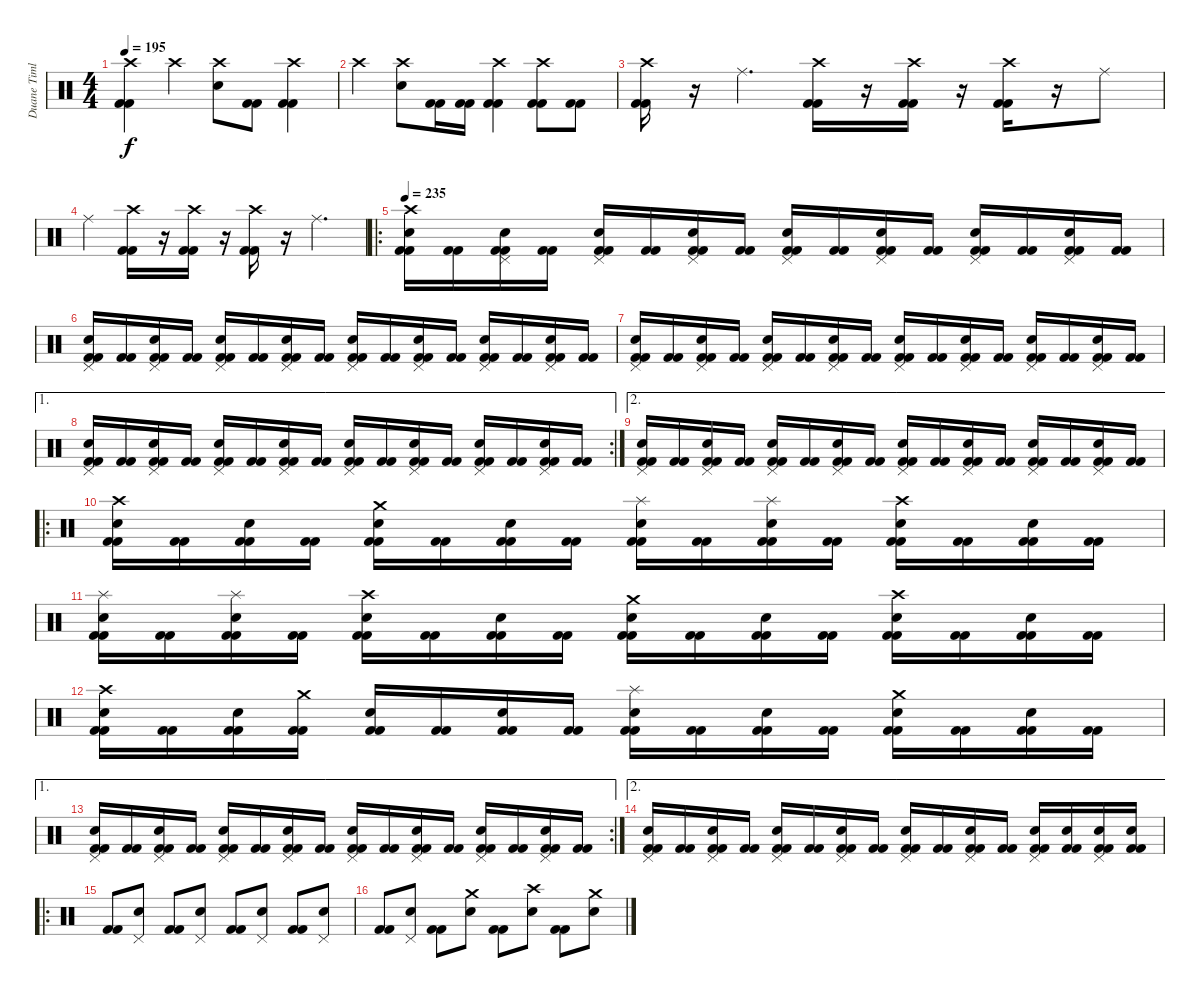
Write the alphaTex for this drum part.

\track ("Duane Timlin" "Duane Timl") {instrument percussion}
\staff {score}
\articulation defaults
\ts (4 4)
\tempo 195
\clef neutral
\ks c
("Crash high (hit)" "Kick (hit) 2" "Kick (hit) 2").4{dy f} "Crash high (hit)".4 ("Crash high (hit)" "Electric Snare (hit)").8 ("Kick (hit) 2" "Kick (hit) 2").8 ("Crash high (hit)" "Kick (hit) 2" "Kick (hit) 2").4 |
"Crash high (hit)".4 ("Crash high (hit)" "Electric Snare (hit)").8 ("Kick (hit) 2" "Kick (hit) 2").16 ("Kick (hit) 2" "Kick (hit) 2").16 ("Crash high (hit)" "Kick (hit) 2" "Kick (hit) 2").4 ("Crash high (hit)" "Kick (hit) 2" "Kick (hit) 2").8 ("Kick (hit) 2" "Kick (hit) 2").8 |
("Crash high (hit)" "Kick (hit) 2" "Kick (hit) 2").16 r.16 "Ride (middle)".4{d} ("Crash high (hit)" "Kick (hit) 2" "Kick (hit) 2").16 r.16 ("Crash high (hit)" "Kick (hit) 2" "Kick (hit) 2").16 r.16 ("Crash high (hit)" "Kick (hit) 2" "Kick (hit) 2").16 r.16 "Ride (middle)".8 |
"Ride (middle)".4 ("Crash high (hit)" "Kick (hit) 2" "Kick (hit) 2").16 r.16 ("Crash high (hit)" "Kick (hit) 2" "Kick (hit) 2").16 r.16 ("Crash high (hit)" "Kick (hit) 2" "Kick (hit) 2").16 r.16 "Ride (middle)".4{d} |
\ro
\tempo 235
("Crash high (hit)" "Electric Snare (hit)" "Kick (hit) 2" "Kick (hit) 2").16 ("Kick (hit) 2" "Kick (hit) 2").16 ("Pedal Hi-Hat (hit)" "Electric Snare (hit)" "Kick (hit) 2" "Kick (hit) 2").16 ("Kick (hit) 2" "Kick (hit) 2").16 ("Pedal Hi-Hat (hit)" "Electric Snare (hit)" "Kick (hit) 2" "Kick (hit) 2").16 ("Kick (hit) 2" "Kick (hit) 2").16 ("Pedal Hi-Hat (hit)" "Electric Snare (hit)" "Kick (hit) 2" "Kick (hit) 2").16 ("Kick (hit) 2" "Kick (hit) 2").16 ("Pedal Hi-Hat (hit)" "Electric Snare (hit)" "Kick (hit) 2" "Kick (hit) 2").16 ("Kick (hit) 2" "Kick (hit) 2").16 ("Pedal Hi-Hat (hit)" "Electric Snare (hit)" "Kick (hit) 2" "Kick (hit) 2").16 ("Kick (hit) 2" "Kick (hit) 2").16 ("Pedal Hi-Hat (hit)" "Electric Snare (hit)" "Kick (hit) 2" "Kick (hit) 2").16 ("Kick (hit) 2" "Kick (hit) 2").16 ("Pedal Hi-Hat (hit)" "Electric Snare (hit)" "Kick (hit) 2" "Kick (hit) 2").16 ("Kick (hit) 2" "Kick (hit) 2").16 |
("Pedal Hi-Hat (hit)" "Electric Snare (hit)" "Kick (hit) 2" "Kick (hit) 2").16 ("Kick (hit) 2" "Kick (hit) 2").16 ("Pedal Hi-Hat (hit)" "Electric Snare (hit)" "Kick (hit) 2" "Kick (hit) 2").16 ("Kick (hit) 2" "Kick (hit) 2").16 ("Pedal Hi-Hat (hit)" "Electric Snare (hit)" "Kick (hit) 2" "Kick (hit) 2").16 ("Kick (hit) 2" "Kick (hit) 2").16 ("Pedal Hi-Hat (hit)" "Electric Snare (hit)" "Kick (hit) 2" "Kick (hit) 2").16 ("Kick (hit) 2" "Kick (hit) 2").16 ("Pedal Hi-Hat (hit)" "Electric Snare (hit)" "Kick (hit) 2" "Kick (hit) 2").16 ("Kick (hit) 2" "Kick (hit) 2").16 ("Pedal Hi-Hat (hit)" "Electric Snare (hit)" "Kick (hit) 2" "Kick (hit) 2").16 ("Kick (hit) 2" "Kick (hit) 2").16 ("Pedal Hi-Hat (hit)" "Electric Snare (hit)" "Kick (hit) 2" "Kick (hit) 2").16 ("Kick (hit) 2" "Kick (hit) 2").16 ("Pedal Hi-Hat (hit)" "Electric Snare (hit)" "Kick (hit) 2" "Kick (hit) 2").16 ("Kick (hit) 2" "Kick (hit) 2").16 |
("Pedal Hi-Hat (hit)" "Electric Snare (hit)" "Kick (hit) 2" "Kick (hit) 2").16 ("Kick (hit) 2" "Kick (hit) 2").16 ("Pedal Hi-Hat (hit)" "Electric Snare (hit)" "Kick (hit) 2" "Kick (hit) 2").16 ("Kick (hit) 2" "Kick (hit) 2").16 ("Pedal Hi-Hat (hit)" "Electric Snare (hit)" "Kick (hit) 2" "Kick (hit) 2").16 ("Kick (hit) 2" "Kick (hit) 2").16 ("Pedal Hi-Hat (hit)" "Electric Snare (hit)" "Kick (hit) 2" "Kick (hit) 2").16 ("Kick (hit) 2" "Kick (hit) 2").16 ("Pedal Hi-Hat (hit)" "Electric Snare (hit)" "Kick (hit) 2" "Kick (hit) 2").16 ("Kick (hit) 2" "Kick (hit) 2").16 ("Pedal Hi-Hat (hit)" "Electric Snare (hit)" "Kick (hit) 2" "Kick (hit) 2").16 ("Kick (hit) 2" "Kick (hit) 2").16 ("Pedal Hi-Hat (hit)" "Electric Snare (hit)" "Kick (hit) 2" "Kick (hit) 2").16 ("Kick (hit) 2" "Kick (hit) 2").16 ("Pedal Hi-Hat (hit)" "Electric Snare (hit)" "Kick (hit) 2" "Kick (hit) 2").16 ("Kick (hit) 2" "Kick (hit) 2").16 |
\ae 1
\rc 2
("Pedal Hi-Hat (hit)" "Electric Snare (hit)" "Kick (hit) 2" "Kick (hit) 2").16 ("Kick (hit) 2" "Kick (hit) 2").16 ("Pedal Hi-Hat (hit)" "Electric Snare (hit)" "Kick (hit) 2" "Kick (hit) 2").16 ("Kick (hit) 2" "Kick (hit) 2").16 ("Pedal Hi-Hat (hit)" "Electric Snare (hit)" "Kick (hit) 2" "Kick (hit) 2").16 ("Kick (hit) 2" "Kick (hit) 2").16 ("Pedal Hi-Hat (hit)" "Electric Snare (hit)" "Kick (hit) 2" "Kick (hit) 2").16 ("Kick (hit) 2" "Kick (hit) 2").16 ("Pedal Hi-Hat (hit)" "Electric Snare (hit)" "Kick (hit) 2" "Kick (hit) 2").16 ("Kick (hit) 2" "Kick (hit) 2").16 ("Pedal Hi-Hat (hit)" "Electric Snare (hit)" "Kick (hit) 2" "Kick (hit) 2").16 ("Kick (hit) 2" "Kick (hit) 2").16 ("Pedal Hi-Hat (hit)" "Electric Snare (hit)" "Kick (hit) 2" "Kick (hit) 2").16 ("Kick (hit) 2" "Kick (hit) 2").16 ("Pedal Hi-Hat (hit)" "Electric Snare (hit)" "Kick (hit) 2" "Kick (hit) 2").16 ("Kick (hit) 2" "Kick (hit) 2").16 |
\ae 2
("Pedal Hi-Hat (hit)" "Electric Snare (hit)" "Kick (hit) 2" "Kick (hit) 2").16 ("Kick (hit) 2" "Kick (hit) 2").16 ("Pedal Hi-Hat (hit)" "Electric Snare (hit)" "Kick (hit) 2" "Kick (hit) 2").16 ("Kick (hit) 2" "Kick (hit) 2").16 ("Pedal Hi-Hat (hit)" "Electric Snare (hit)" "Kick (hit) 2" "Kick (hit) 2").16 ("Kick (hit) 2" "Kick (hit) 2").16 ("Pedal Hi-Hat (hit)" "Electric Snare (hit)" "Kick (hit) 2" "Kick (hit) 2").16 ("Kick (hit) 2" "Kick (hit) 2").16 ("Pedal Hi-Hat (hit)" "Electric Snare (hit)" "Kick (hit) 2" "Kick (hit) 2").16 ("Kick (hit) 2" "Kick (hit) 2").16 ("Pedal Hi-Hat (hit)" "Electric Snare (hit)" "Kick (hit) 2" "Kick (hit) 2").16 ("Kick (hit) 2" "Kick (hit) 2").16 ("Pedal Hi-Hat (hit)" "Electric Snare (hit)" "Kick (hit) 2" "Kick (hit) 2").16 ("Kick (hit) 2" "Kick (hit) 2").16 ("Pedal Hi-Hat (hit)" "Electric Snare (hit)" "Kick (hit) 2" "Kick (hit) 2").16 ("Kick (hit) 2" "Kick (hit) 2").16 |
\ro
("Crash high (hit)" "Electric Snare (hit)" "Kick (hit) 2" "Kick (hit) 2").16 ("Kick (hit) 2" "Kick (hit) 2").16 ("Electric Snare (hit)" "Kick (hit) 2" "Kick (hit) 2").16 ("Kick (hit) 2" "Kick (hit) 2").16 ("Crash medium (hit)" "Electric Snare (hit)" "Kick (hit) 2" "Kick (hit) 2").16 ("Kick (hit) 2" "Kick (hit) 2").16 ("Electric Snare (hit)" "Kick (hit) 2" "Kick (hit) 2").16 ("Kick (hit) 2" "Kick (hit) 2").16 ("Splash (hit)" "Electric Snare (hit)" "Kick (hit) 2" "Kick (hit) 2").16 ("Kick (hit) 2" "Kick (hit) 2").16 ("Splash (hit)" "Electric Snare (hit)" "Kick (hit) 2" "Kick (hit) 2").16 ("Kick (hit) 2" "Kick (hit) 2").16 ("Crash high (hit)" "Electric Snare (hit)" "Kick (hit) 2" "Kick (hit) 2").16 ("Kick (hit) 2" "Kick (hit) 2").16 ("Electric Snare (hit)" "Kick (hit) 2" "Kick (hit) 2").16 ("Kick (hit) 2" "Kick (hit) 2").16 |
("Splash (hit)" "Electric Snare (hit)" "Kick (hit) 2" "Kick (hit) 2").16 ("Kick (hit) 2" "Kick (hit) 2").16 ("Splash (hit)" "Electric Snare (hit)" "Kick (hit) 2" "Kick (hit) 2").16 ("Kick (hit) 2" "Kick (hit) 2").16 ("Crash high (hit)" "Electric Snare (hit)" "Kick (hit) 2" "Kick (hit) 2").16 ("Kick (hit) 2" "Kick (hit) 2").16 ("Electric Snare (hit)" "Kick (hit) 2" "Kick (hit) 2").16 ("Kick (hit) 2" "Kick (hit) 2").16 ("Crash medium (hit)" "Electric Snare (hit)" "Kick (hit) 2" "Kick (hit) 2").16 ("Kick (hit) 2" "Kick (hit) 2").16 ("Electric Snare (hit)" "Kick (hit) 2" "Kick (hit) 2").16 ("Kick (hit) 2" "Kick (hit) 2").16 ("Crash high (hit)" "Electric Snare (hit)" "Kick (hit) 2" "Kick (hit) 2").16 ("Kick (hit) 2" "Kick (hit) 2").16 ("Electric Snare (hit)" "Kick (hit) 2" "Kick (hit) 2").16 ("Kick (hit) 2" "Kick (hit) 2").16 |
("Crash high (hit)" "Electric Snare (hit)" "Kick (hit) 2" "Kick (hit) 2").16 ("Kick (hit) 2" "Kick (hit) 2").16 ("Electric Snare (hit)" "Kick (hit) 2" "Kick (hit) 2").16 ("Crash medium (hit)" "Kick (hit) 2" "Kick (hit) 2").16 ("Electric Snare (hit)" "Kick (hit) 2" "Kick (hit) 2").16 ("Kick (hit) 2" "Kick (hit) 2").16 ("Electric Snare (hit)" "Kick (hit) 2" "Kick (hit) 2").16 ("Kick (hit) 2" "Kick (hit) 2").16 ("Splash (hit)" "Electric Snare (hit)" "Kick (hit) 2" "Kick (hit) 2").16 ("Kick (hit) 2" "Kick (hit) 2").16 ("Electric Snare (hit)" "Kick (hit) 2" "Kick (hit) 2").16 ("Kick (hit) 2" "Kick (hit) 2").16 ("Crash medium (hit)" "Electric Snare (hit)" "Kick (hit) 2" "Kick (hit) 2").16 ("Kick (hit) 2" "Kick (hit) 2").16 ("Electric Snare (hit)" "Kick (hit) 2" "Kick (hit) 2").16 ("Kick (hit) 2" "Kick (hit) 2").16 |
\ae 1
\rc 2
("Pedal Hi-Hat (hit)" "Electric Snare (hit)" "Kick (hit) 2" "Kick (hit) 2").16 ("Kick (hit) 2" "Kick (hit) 2").16 ("Pedal Hi-Hat (hit)" "Electric Snare (hit)" "Kick (hit) 2" "Kick (hit) 2").16 ("Kick (hit) 2" "Kick (hit) 2").16 ("Pedal Hi-Hat (hit)" "Electric Snare (hit)" "Kick (hit) 2" "Kick (hit) 2").16 ("Kick (hit) 2" "Kick (hit) 2").16 ("Pedal Hi-Hat (hit)" "Electric Snare (hit)" "Kick (hit) 2" "Kick (hit) 2").16 ("Kick (hit) 2" "Kick (hit) 2").16 ("Pedal Hi-Hat (hit)" "Electric Snare (hit)" "Kick (hit) 2" "Kick (hit) 2").16 ("Kick (hit) 2" "Kick (hit) 2").16 ("Pedal Hi-Hat (hit)" "Electric Snare (hit)" "Kick (hit) 2" "Kick (hit) 2").16 ("Kick (hit) 2" "Kick (hit) 2").16 ("Pedal Hi-Hat (hit)" "Electric Snare (hit)" "Kick (hit) 2" "Kick (hit) 2").16 ("Kick (hit) 2" "Kick (hit) 2").16 ("Pedal Hi-Hat (hit)" "Electric Snare (hit)" "Kick (hit) 2" "Kick (hit) 2").16 ("Kick (hit) 2" "Kick (hit) 2").16 |
\ae 2
("Pedal Hi-Hat (hit)" "Electric Snare (hit)" "Kick (hit) 2" "Kick (hit) 2").16 ("Kick (hit) 2" "Kick (hit) 2").16 ("Pedal Hi-Hat (hit)" "Electric Snare (hit)" "Kick (hit) 2" "Kick (hit) 2").16 ("Kick (hit) 2" "Kick (hit) 2").16 ("Pedal Hi-Hat (hit)" "Electric Snare (hit)" "Kick (hit) 2" "Kick (hit) 2").16 ("Kick (hit) 2" "Kick (hit) 2").16 ("Pedal Hi-Hat (hit)" "Electric Snare (hit)" "Kick (hit) 2" "Kick (hit) 2").16 ("Kick (hit) 2" "Kick (hit) 2").16 ("Pedal Hi-Hat (hit)" "Electric Snare (hit)" "Kick (hit) 2" "Kick (hit) 2").16 ("Kick (hit) 2" "Kick (hit) 2").16 ("Pedal Hi-Hat (hit)" "Electric Snare (hit)" "Kick (hit) 2" "Kick (hit) 2").16 ("Kick (hit) 2" "Kick (hit) 2").16 ("Pedal Hi-Hat (hit)" "Electric Snare (hit)" "Kick (hit) 2" "Kick (hit) 2").16 ("Electric Snare (hit)" "Kick (hit) 2" "Kick (hit) 2").16 ("Pedal Hi-Hat (hit)" "Electric Snare (hit)" "Kick (hit) 2" "Kick (hit) 2").16 ("Electric Snare (hit)" "Kick (hit) 2" "Kick (hit) 2").16 |
\ro
("Kick (hit) 2" "Kick (hit) 2").8 ("Pedal Hi-Hat (hit)" "Electric Snare (hit)").8 ("Kick (hit) 2" "Kick (hit) 2").8 ("Pedal Hi-Hat (hit)" "Electric Snare (hit)").8 ("Kick (hit) 2" "Kick (hit) 2").8 ("Pedal Hi-Hat (hit)" "Electric Snare (hit)").8 ("Kick (hit) 2" "Kick (hit) 2").8 ("Pedal Hi-Hat (hit)" "Electric Snare (hit)").8 |
("Kick (hit) 2" "Kick (hit) 2").8 ("Pedal Hi-Hat (hit)" "Electric Snare (hit)").8 ("Kick (hit) 2" "Kick (hit) 2").8 ("Crash medium (hit)" "Electric Snare (hit)").8 ("Kick (hit) 2" "Kick (hit) 2").8 ("Crash high (hit)" "Electric Snare (hit)").8 ("Kick (hit) 2" "Kick (hit) 2").8 ("Crash medium (hit)" "Electric Snare (hit)").8
